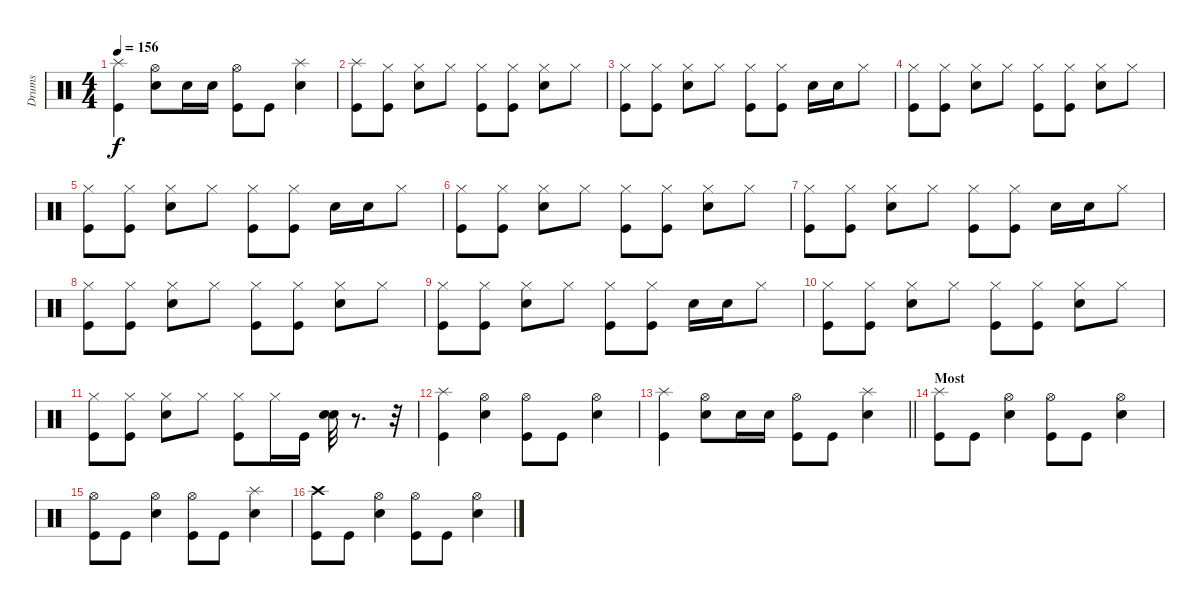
\track ("Drums" "Drums") {instrument percussion}
\staff {score}
\articulation defaults
\ts (4 4)
\tempo 156
\clef neutral
\ks c
("Splash (hit)" "Kick (hit)").4{dy f} ("Hi-Hat (open)" "Snare (hit) 2").8 "Snare (hit) 2".16 "Snare (hit) 2".16 ("Hi-Hat (open)" "Kick (hit)").8 "Kick (hit)".8 ("Splash (hit)" "Snare (hit) 2").4 |
("Splash (hit)" "Kick (hit)").8 ("Hi-Hat (closed)" "Kick (hit)").8 ("Hi-Hat (closed)" "Snare (hit) 2").8 "Hi-Hat (closed)".8 ("Hi-Hat (closed)" "Kick (hit)").8 ("Hi-Hat (closed)" "Kick (hit)").8 ("Hi-Hat (closed)" "Snare (hit) 2").8 "Hi-Hat (closed)".8 |
("Hi-Hat (closed)" "Kick (hit)").8 ("Hi-Hat (closed)" "Kick (hit)").8 ("Hi-Hat (closed)" "Snare (hit) 2").8 "Hi-Hat (closed)".8 ("Hi-Hat (closed)" "Kick (hit)").8 ("Hi-Hat (closed)" "Kick (hit)").8 "Snare (hit) 2".16 "Snare (hit) 2".16 "Hi-Hat (closed)".8 |
("Hi-Hat (closed)" "Kick (hit)").8 ("Hi-Hat (closed)" "Kick (hit)").8 ("Hi-Hat (closed)" "Snare (hit) 2").8 "Hi-Hat (closed)".8 ("Hi-Hat (closed)" "Kick (hit)").8 ("Hi-Hat (closed)" "Kick (hit)").8 ("Hi-Hat (closed)" "Snare (hit) 2").8 "Hi-Hat (closed)".8 |
("Hi-Hat (closed)" "Kick (hit)").8 ("Hi-Hat (closed)" "Kick (hit)").8 ("Hi-Hat (closed)" "Snare (hit) 2").8 "Hi-Hat (closed)".8 ("Hi-Hat (closed)" "Kick (hit)").8 ("Hi-Hat (closed)" "Kick (hit)").8 "Snare (hit) 2".16 "Snare (hit) 2".16 "Hi-Hat (closed)".8 |
("Hi-Hat (closed)" "Kick (hit)").8 ("Hi-Hat (closed)" "Kick (hit)").8 ("Hi-Hat (closed)" "Snare (hit) 2").8 "Hi-Hat (closed)".8 ("Hi-Hat (closed)" "Kick (hit)").8 ("Hi-Hat (closed)" "Kick (hit)").8 ("Hi-Hat (closed)" "Snare (hit) 2").8 "Hi-Hat (closed)".8 |
("Hi-Hat (closed)" "Kick (hit)").8 ("Hi-Hat (closed)" "Kick (hit)").8 ("Hi-Hat (closed)" "Snare (hit) 2").8 "Hi-Hat (closed)".8 ("Hi-Hat (closed)" "Kick (hit)").8 ("Hi-Hat (closed)" "Kick (hit)").8 "Snare (hit) 2".16 "Snare (hit) 2".16 "Hi-Hat (closed)".8 |
("Hi-Hat (closed)" "Kick (hit)").8 ("Hi-Hat (closed)" "Kick (hit)").8 ("Hi-Hat (closed)" "Snare (hit) 2").8 "Hi-Hat (closed)".8 ("Hi-Hat (closed)" "Kick (hit)").8 ("Hi-Hat (closed)" "Kick (hit)").8 ("Hi-Hat (closed)" "Snare (hit) 2").8 "Hi-Hat (closed)".8 |
("Hi-Hat (closed)" "Kick (hit)").8 ("Hi-Hat (closed)" "Kick (hit)").8 ("Hi-Hat (closed)" "Snare (hit) 2").8 "Hi-Hat (closed)".8 ("Hi-Hat (closed)" "Kick (hit)").8 ("Hi-Hat (closed)" "Kick (hit)").8 "Snare (hit) 2".16 "Snare (hit) 2".16 "Hi-Hat (closed)".8 |
("Hi-Hat (closed)" "Kick (hit)").8 ("Hi-Hat (closed)" "Kick (hit)").8 ("Hi-Hat (closed)" "Snare (hit) 2").8 "Hi-Hat (closed)".8 ("Hi-Hat (closed)" "Kick (hit)").8 ("Hi-Hat (closed)" "Kick (hit)").8 ("Hi-Hat (closed)" "Snare (hit) 2").8 "Hi-Hat (closed)".8 |
("Hi-Hat (closed)" "Kick (hit)").8 ("Hi-Hat (closed)" "Kick (hit)").8 ("Hi-Hat (closed)" "Snare (hit) 2").8 "Hi-Hat (closed)".8 ("Hi-Hat (closed)" "Kick (hit)").8 "Hi-Hat (closed)".16 "Kick (hit)".16 ("Snare (hit) 2" "Snare (hit) 2").32 r.8{d} r.32 |
("Splash (hit)" "Kick (hit)").4 ("Hi-Hat (open)" "Snare (hit) 2").4 ("Hi-Hat (open)" "Kick (hit)").8 "Kick (hit)".8 ("Hi-Hat (open)" "Snare (hit) 2").4 |
\barLineRight lightlight
("Splash (hit)" "Kick (hit)").4 ("Hi-Hat (open)" "Snare (hit) 2").8 "Snare (hit) 2".16 "Snare (hit) 2".16 ("Hi-Hat (open)" "Kick (hit)").8 "Kick (hit)".8 ("Splash (hit)" "Snare (hit) 2").4 |
\section ("" "Most")
("Splash (hit)" "Kick (hit)").8 "Kick (hit)".8 ("Hi-Hat (open)" "Snare (hit) 2").4 ("Hi-Hat (open)" "Kick (hit)").8 "Kick (hit)".8 ("Hi-Hat (open)" "Snare (hit) 2").4 |
("Hi-Hat (open)" "Kick (hit)").8 "Kick (hit)".8 ("Hi-Hat (open)" "Snare (hit) 2").4 ("Hi-Hat (open)" "Kick (hit)").8 "Kick (hit)".8 ("Splash (hit)" "Snare (hit) 2").4 |
("Crash high (hit)" "Kick (hit)").8 "Kick (hit)".8 ("Hi-Hat (open)" "Snare (hit) 2").4 ("Hi-Hat (open)" "Kick (hit)").8 "Kick (hit)".8 ("Hi-Hat (open)" "Snare (hit) 2").4
